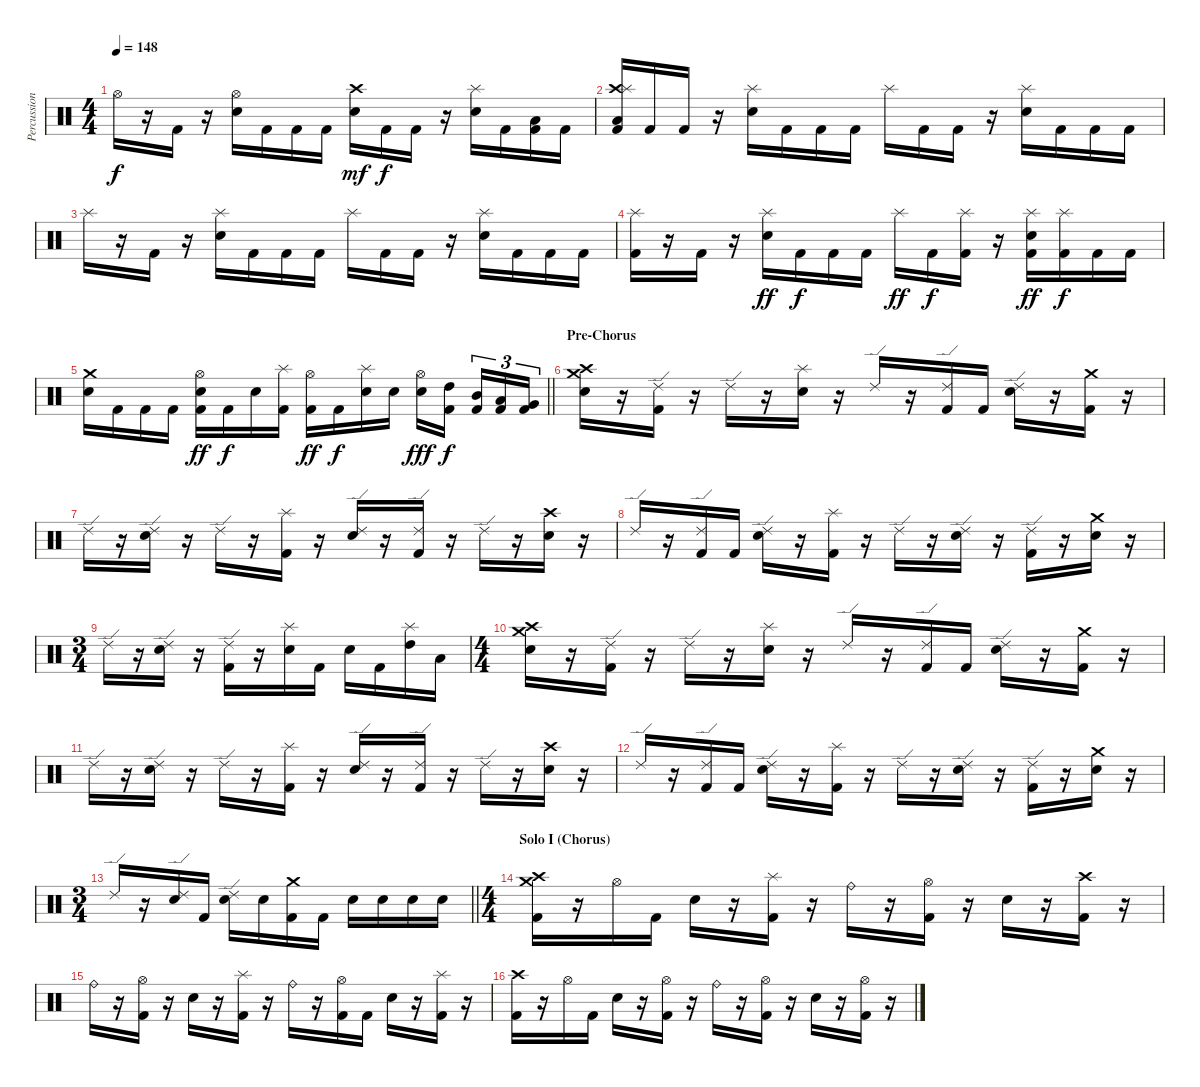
\track ("Percussion" "Percussion") {instrument percussion}
\staff {score}
\articulation defaults
\ts (4 4)
\tempo 148
\clef neutral
\ks c "Hi-Hat (open)".16{dy f}
r.16 "Kick (hit) 2".16 r.16 ("Hi-Hat (open)" "Electric Snare (hit)").16 "Kick (hit) 2".16 "Kick (hit) 2".16 "Kick (hit) 2".16 ("Crash high (hit)" "Electric Snare (hit)").16{dy mf} "Kick (hit) 2".16{dy f} "Kick (hit) 2".16 r.16 ("Splash (hit)" "Electric Snare (hit)").16 "Kick (hit) 2".16 ("Low Tom (hit)" "Kick (hit) 2").16 "Kick (hit) 2".16 |
("Crash high (hit)" "Splash (hit)" "Low Floor Tom (hit)" "Kick (hit) 2").16 "Kick (hit) 2".16 "Kick (hit) 2".16 r.16 ("Splash (hit)" "Electric Snare (hit)").16 "Kick (hit) 2".16 "Kick (hit) 2".16 "Kick (hit) 2".16 "Splash (hit)".16 "Kick (hit) 2".16 "Kick (hit) 2".16 r.16 ("Splash (hit)" "Electric Snare (hit)").16 "Kick (hit) 2".16 "Kick (hit) 2".16 "Kick (hit) 2".16 |
"Splash (hit)".16 r.16 "Kick (hit) 2".16 r.16 ("Splash (hit)" "Electric Snare (hit)").16 "Kick (hit) 2".16 "Kick (hit) 2".16 "Kick (hit) 2".16 "Splash (hit)".16 "Kick (hit) 2".16 "Kick (hit) 2".16 r.16 ("Splash (hit)" "Electric Snare (hit)").16 "Kick (hit) 2".16 "Kick (hit) 2".16 "Kick (hit) 2".16 |
("Splash (hit)" "Kick (hit) 2").16 r.16 "Kick (hit) 2".16 r.16 ("Splash (hit)" "Electric Snare (hit)").16{dy ff} "Kick (hit) 2".16{dy f} "Kick (hit) 2".16 "Kick (hit) 2".16 "Splash (hit)".16{dy ff} "Kick (hit) 2".16{dy f} ("Splash (hit)" "Kick (hit) 2").16 r.16 ("Splash (hit)" "Electric Snare (hit)" "Kick (hit) 2").16{dy ff} ("Splash (hit)" "Kick (hit) 2").16{dy f} "Kick (hit) 2".16 "Kick (hit) 2".16 |
\barLineRight lightlight
("Crash medium (hit)" "Electric Snare (hit)").16 "Kick (hit) 2".16 "Kick (hit) 2".16 "Kick (hit) 2".16 ("Hi-Hat (open)" "Electric Snare (hit)" "Kick (hit) 2").16{dy ff} "Kick (hit) 2".16{dy f} "Electric Snare (hit)".16 ("Splash (hit)" "Kick (hit) 2").16 ("Hi-Hat (open)" "Kick (hit) 2").16{dy ff} "Kick (hit) 2".16{dy f} ("Splash (hit)" "Electric Snare (hit)").16 "Electric Snare (hit)".16 ("Hi-Hat (open)" "Electric Snare (hit)").16{dy fff} ("High Tom (hit)" "Kick (hit) 2").16{dy f beam splitsecondary} ("Mid Tom (hit)" "Kick (hit) 2").16{tu (3 2)} ("Low Tom (hit)" "Kick (hit) 2").16{tu (3 2)} ("Very Low Tom (hit)" "Kick (hit) 2").16{tu (3 2)} |
\section ("" "Pre-Chorus")
("Crash medium (hit)" "Crash high (hit)" "Electric Snare (hit)").16 r.16 ("Ride (edge) 2" "Kick (hit) 2").16 r.16 "Ride (edge) 2".16 r.16 ("Splash (hit)" "Electric Snare (hit)").16 r.16 "Ride (edge) 2".16 r.16 ("Ride (edge) 2" "Kick (hit) 2").16 "Kick (hit) 2".16 ("Ride (edge) 2" "Electric Snare (hit)").16 r.16 ("Crash medium (hit)" "Kick (hit) 2").16 r.16 |
"Ride (edge) 2".16 r.16 ("Ride (edge) 2" "Electric Snare (hit)").16 r.16 "Ride (edge) 2".16 r.16 ("Splash (hit)" "Kick (hit) 2").16 r.16 ("Ride (edge) 2" "Electric Snare (hit)").16 r.16 ("Ride (edge) 2" "Kick (hit) 2").16 r.16 "Ride (edge) 2".16 r.16 ("Crash high (hit)" "Electric Snare (hit)").16 r.16 |
"Ride (edge) 2".16 r.16 ("Ride (edge) 2" "Kick (hit) 2").16 "Kick (hit) 2".16 ("Ride (edge) 2" "Electric Snare (hit)").16 r.16 ("Splash (hit)" "Kick (hit) 2").16 r.16 "Ride (edge) 2".16 r.16 ("Ride (edge) 2" "Electric Snare (hit)").16 r.16 ("Ride (edge) 2" "Kick (hit) 2").16 r.16 ("Crash medium (hit)" "Electric Snare (hit)").16 r.16 |
\ts (3 4)
"Ride (edge) 2".16 r.16 ("Ride (edge) 2" "Electric Snare (hit)").16 r.16 ("Ride (edge) 2" "Kick (hit) 2").16 r.16 ("Splash (hit)" "Electric Snare (hit)").16 "Kick (hit) 2".16 "Electric Snare (hit)".16 "Kick (hit) 2".16 ("Splash (hit)" "High Tom (hit)").16 "Low Tom (hit)".16 |
\ts (4 4)
("Crash medium (hit)" "Crash high (hit)" "Electric Snare (hit)").16 r.16 ("Ride (edge) 2" "Kick (hit) 2").16 r.16 "Ride (edge) 2".16 r.16 ("Splash (hit)" "Electric Snare (hit)").16 r.16 "Ride (edge) 2".16 r.16 ("Ride (edge) 2" "Kick (hit) 2").16 "Kick (hit) 2".16 ("Ride (edge) 2" "Electric Snare (hit)").16 r.16 ("Crash medium (hit)" "Kick (hit) 2").16 r.16 |
"Ride (edge) 2".16 r.16 ("Ride (edge) 2" "Electric Snare (hit)").16 r.16 "Ride (edge) 2".16 r.16 ("Splash (hit)" "Kick (hit) 2").16 r.16 ("Ride (edge) 2" "Electric Snare (hit)").16 r.16 ("Ride (edge) 2" "Kick (hit) 2").16 r.16 "Ride (edge) 2".16 r.16 ("Crash high (hit)" "Electric Snare (hit)").16 r.16 |
"Ride (edge) 2".16 r.16 ("Ride (edge) 2" "Kick (hit) 2").16 "Kick (hit) 2".16 ("Ride (edge) 2" "Electric Snare (hit)").16 r.16 ("Splash (hit)" "Kick (hit) 2").16 r.16 "Ride (edge) 2".16 r.16 ("Ride (edge) 2" "Electric Snare (hit)").16 r.16 ("Ride (edge) 2" "Kick (hit) 2").16 r.16 ("Crash medium (hit)" "Electric Snare (hit)").16 r.16 |
\ts (3 4)
\barLineRight lightlight "Ride (edge) 2".16
r.16 ("Ride (edge) 2" "Electric Snare (hit)").16 "Kick (hit) 2".16 ("Ride (edge) 2" "Electric Snare (hit)").16 "Electric Snare (hit)".16 ("Crash medium (hit)" "Kick (hit) 2").16 "Kick (hit) 2".16 "Electric Snare (hit)".16 "Electric Snare (hit)".16 "Electric Snare (hit)".16 "Electric Snare (hit)".16 |
\ts (4 4)
\section ("" "Solo I (Chorus)")
("Crash medium (hit)" "Crash high (hit)" "Kick (hit) 2").16 r.16 "Hi-Hat (open)".16 "Kick (hit) 2".16 "Electric Snare (hit)".16 r.16 ("Splash (hit)" "Kick (hit) 2").16 r.16 "Ride (bell)".16 r.16 ("Hi-Hat (open)" "Kick (hit) 2").16 r.16 "Electric Snare (hit)".16 r.16 ("Crash high (hit)" "Kick (hit) 2").16 r.16 |
"Ride (bell)".16 r.16 ("Hi-Hat (open)" "Kick (hit) 2").16 r.16 "Electric Snare (hit)".16 r.16 ("Splash (hit)" "Kick (hit) 2").16 r.16 "Ride (bell)".16 r.16 ("Hi-Hat (open)" "Kick (hit) 2").16 "Kick (hit) 2".16 "Electric Snare (hit)".16 r.16 ("Splash (hit)" "Kick (hit) 2").16 r.16 |
("Crash high (hit)" "Kick (hit) 2").16 r.16 "Hi-Hat (open)".16 "Kick (hit) 2".16 "Electric Snare (hit)".16 r.16 ("Hi-Hat (open)" "Kick (hit) 2").16 r.16 "Ride (bell)".16 r.16 ("Hi-Hat (open)" "Kick (hit) 2").16 r.16 "Electric Snare (hit)".16 r.16 ("Hi-Hat (open)" "Kick (hit) 2").16 r.16
